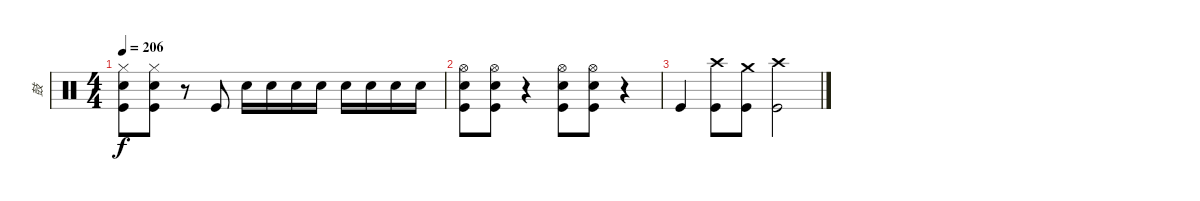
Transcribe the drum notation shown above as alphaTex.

\track ("鼓" "鼓") {instrument percussion}
\staff {score}
\articulation defaults
\ts (4 4)
\tempo 206
\clef neutral
\ks c
("Hi-Hat (closed)" "Snare (hit) 2" "Kick (hit)").8{dy f} ("Hi-Hat (closed)" "Snare (hit) 2" "Kick (hit)").8 r.8 "Kick (hit)".8 "Snare (hit) 2".16 "Snare (hit) 2".16 "Snare (hit) 2".16 "Snare (hit) 2".16 "Snare (hit) 2".16 "Snare (hit) 2".16 "Snare (hit) 2".16 "Snare (hit) 2".16 |
("Hi-Hat (open)" "Snare (hit) 2" "Kick (hit)").8 ("Hi-Hat (open)" "Snare (hit) 2" "Kick (hit)").8 r.4 ("Hi-Hat (open)" "Snare (hit) 2" "Kick (hit)").8 ("Hi-Hat (open)" "Snare (hit) 2" "Kick (hit)").8 r.4 |
"Kick (hit)".4 ("Crash high (hit)" "Kick (hit)").8 ("Crash medium (hit)" "Kick (hit)").8 ("Crash high (hit)" "Kick (hit)").2
